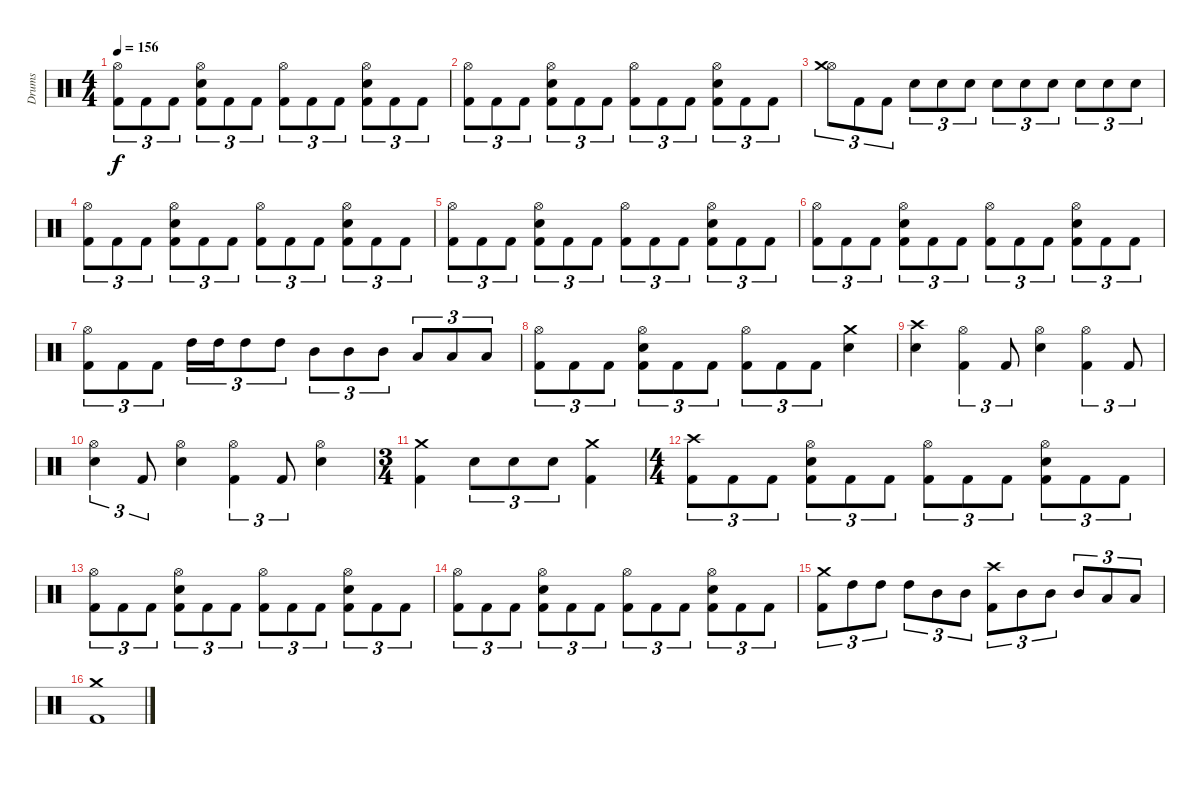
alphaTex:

\track ("Drums" "Drums") {instrument percussion}
\staff {score}
\articulation defaults
\ts (4 4)
\tempo 156
\clef neutral
\ks c
("Hi-Hat (open)" "Kick (hit) 2").8{tu (3 2) dy f} "Kick (hit) 2".8{tu (3 2)} "Kick (hit) 2".8{tu (3 2)} ("Electric Snare (hit)" "Kick (hit) 2" "Hi-Hat (open)").8{tu (3 2)} "Kick (hit) 2".8{tu (3 2)} "Kick (hit) 2".8{tu (3 2)} ("Hi-Hat (open)" "Kick (hit) 2").8{tu (3 2)} "Kick (hit) 2".8{tu (3 2)} "Kick (hit) 2".8{tu (3 2)} ("Electric Snare (hit)" "Kick (hit) 2" "Hi-Hat (open)").8{tu (3 2)} "Kick (hit) 2".8{tu (3 2)} "Kick (hit) 2".8{tu (3 2)} |
("Hi-Hat (open)" "Kick (hit) 2").8{tu (3 2)} "Kick (hit) 2".8{tu (3 2)} "Kick (hit) 2".8{tu (3 2)} ("Electric Snare (hit)" "Kick (hit) 2" "Hi-Hat (open)").8{tu (3 2)} "Kick (hit) 2".8{tu (3 2)} "Kick (hit) 2".8{tu (3 2)} ("Hi-Hat (open)" "Kick (hit) 2").8{tu (3 2)} "Kick (hit) 2".8{tu (3 2)} "Kick (hit) 2".8{tu (3 2)} ("Electric Snare (hit)" "Kick (hit) 2" "Hi-Hat (open)").8{tu (3 2)} "Kick (hit) 2".8{tu (3 2)} "Kick (hit) 2".8{tu (3 2)} |
("Hi-Hat (open)" "Crash medium (hit)").8{tu (3 2)} "Kick (hit) 2".8{tu (3 2)} "Kick (hit) 2".8{tu (3 2)} "Electric Snare (hit)".8{tu (3 2)} "Electric Snare (hit)".8{tu (3 2)} "Electric Snare (hit)".8{tu (3 2)} "Electric Snare (hit)".8{tu (3 2)} "Electric Snare (hit)".8{tu (3 2)} "Electric Snare (hit)".8{tu (3 2)} "Electric Snare (hit)".8{tu (3 2)} "Electric Snare (hit)".8{tu (3 2)} "Electric Snare (hit)".8{tu (3 2)} |
("Hi-Hat (open)" "Kick (hit) 2").8{tu (3 2)} "Kick (hit) 2".8{tu (3 2)} "Kick (hit) 2".8{tu (3 2)} ("Electric Snare (hit)" "Kick (hit) 2" "Hi-Hat (open)").8{tu (3 2)} "Kick (hit) 2".8{tu (3 2)} "Kick (hit) 2".8{tu (3 2)} ("Hi-Hat (open)" "Kick (hit) 2").8{tu (3 2)} "Kick (hit) 2".8{tu (3 2)} "Kick (hit) 2".8{tu (3 2)} ("Electric Snare (hit)" "Kick (hit) 2" "Hi-Hat (open)").8{tu (3 2)} "Kick (hit) 2".8{tu (3 2)} "Kick (hit) 2".8{tu (3 2)} |
("Hi-Hat (open)" "Kick (hit) 2").8{tu (3 2)} "Kick (hit) 2".8{tu (3 2)} "Kick (hit) 2".8{tu (3 2)} ("Electric Snare (hit)" "Kick (hit) 2" "Hi-Hat (open)").8{tu (3 2)} "Kick (hit) 2".8{tu (3 2)} "Kick (hit) 2".8{tu (3 2)} ("Hi-Hat (open)" "Kick (hit) 2").8{tu (3 2)} "Kick (hit) 2".8{tu (3 2)} "Kick (hit) 2".8{tu (3 2)} ("Electric Snare (hit)" "Kick (hit) 2" "Hi-Hat (open)").8{tu (3 2)} "Kick (hit) 2".8{tu (3 2)} "Kick (hit) 2".8{tu (3 2)} |
("Hi-Hat (open)" "Kick (hit) 2").8{tu (3 2)} "Kick (hit) 2".8{tu (3 2)} "Kick (hit) 2".8{tu (3 2)} ("Electric Snare (hit)" "Kick (hit) 2" "Hi-Hat (open)").8{tu (3 2)} "Kick (hit) 2".8{tu (3 2)} "Kick (hit) 2".8{tu (3 2)} ("Hi-Hat (open)" "Kick (hit) 2").8{tu (3 2)} "Kick (hit) 2".8{tu (3 2)} "Kick (hit) 2".8{tu (3 2)} ("Electric Snare (hit)" "Kick (hit) 2" "Hi-Hat (open)").8{tu (3 2)} "Kick (hit) 2".8{tu (3 2)} "Kick (hit) 2".8{tu (3 2)} |
("Hi-Hat (open)" "Kick (hit) 2").8{tu (3 2)} "Kick (hit) 2".8{tu (3 2)} "Kick (hit) 2".8{tu (3 2)} "High Tom (hit)".16{tu (3 2)} "High Tom (hit)".16{tu (3 2)} "High Tom (hit)".8{tu (3 2)} "High Tom (hit)".8{tu (3 2)} "Mid Tom (hit)".8{tu (3 2)} "Mid Tom (hit)".8{tu (3 2)} "Mid Tom (hit)".8{tu (3 2)} "Low Tom (hit)".8{tu (3 2)} "Low Tom (hit)".8{tu (3 2)} "Low Tom (hit)".8{tu (3 2)} |
("Hi-Hat (open)" "Kick (hit) 2").8{tu (3 2)} "Kick (hit) 2".8{tu (3 2)} "Kick (hit) 2".8{tu (3 2)} ("Electric Snare (hit)" "Kick (hit) 2" "Hi-Hat (open)").8{tu (3 2)} "Kick (hit) 2".8{tu (3 2)} "Kick (hit) 2".8{tu (3 2)} ("Hi-Hat (open)" "Kick (hit) 2").8{tu (3 2)} "Kick (hit) 2".8{tu (3 2)} "Kick (hit) 2".8{tu (3 2)} ("Crash medium (hit)" "Electric Snare (hit)").4 |
("Crash high (hit)" "Electric Snare (hit)").4 ("Hi-Hat (open)" "Kick (hit) 2").4{tu (3 2)} "Kick (hit) 2".8{tu (3 2)} ("Hi-Hat (open)" "Electric Snare (hit)").4 ("Hi-Hat (open)" "Kick (hit) 2").4{tu (3 2)} "Kick (hit) 2".8{tu (3 2)} |
("Hi-Hat (open)" "Electric Snare (hit)").4{tu (3 2)} "Kick (hit) 2".8{tu (3 2)} ("Hi-Hat (open)" "Electric Snare (hit)").4 ("Hi-Hat (open)" "Kick (hit) 2").4{tu (3 2)} "Kick (hit) 2".8{tu (3 2)} ("Hi-Hat (open)" "Electric Snare (hit)").4 |
\ts (3 4)
("Crash medium (hit)" "Kick (hit) 2").4 "Electric Snare (hit)".8{tu (3 2)} "Electric Snare (hit)".8{tu (3 2)} "Electric Snare (hit)".8{tu (3 2)} ("Crash medium (hit)" "Kick (hit) 2").4 |
\ts (4 4)
("Crash high (hit)" "Kick (hit) 2").8{tu (3 2)} "Kick (hit) 2".8{tu (3 2)} "Kick (hit) 2".8{tu (3 2)} ("Electric Snare (hit)" "Kick (hit) 2" "Hi-Hat (open)").8{tu (3 2)} "Kick (hit) 2".8{tu (3 2)} "Kick (hit) 2".8{tu (3 2)} ("Hi-Hat (open)" "Kick (hit) 2").8{tu (3 2)} "Kick (hit) 2".8{tu (3 2)} "Kick (hit) 2".8{tu (3 2)} ("Electric Snare (hit)" "Kick (hit) 2" "Hi-Hat (open)").8{tu (3 2)} "Kick (hit) 2".8{tu (3 2)} "Kick (hit) 2".8{tu (3 2)} |
("Hi-Hat (open)" "Kick (hit) 2").8{tu (3 2)} "Kick (hit) 2".8{tu (3 2)} "Kick (hit) 2".8{tu (3 2)} ("Electric Snare (hit)" "Kick (hit) 2" "Hi-Hat (open)").8{tu (3 2)} "Kick (hit) 2".8{tu (3 2)} "Kick (hit) 2".8{tu (3 2)} ("Hi-Hat (open)" "Kick (hit) 2").8{tu (3 2)} "Kick (hit) 2".8{tu (3 2)} "Kick (hit) 2".8{tu (3 2)} ("Electric Snare (hit)" "Kick (hit) 2" "Hi-Hat (open)").8{tu (3 2)} "Kick (hit) 2".8{tu (3 2)} "Kick (hit) 2".8{tu (3 2)} |
("Hi-Hat (open)" "Kick (hit) 2").8{tu (3 2)} "Kick (hit) 2".8{tu (3 2)} "Kick (hit) 2".8{tu (3 2)} ("Electric Snare (hit)" "Kick (hit) 2" "Hi-Hat (open)").8{tu (3 2)} "Kick (hit) 2".8{tu (3 2)} "Kick (hit) 2".8{tu (3 2)} ("Hi-Hat (open)" "Kick (hit) 2").8{tu (3 2)} "Kick (hit) 2".8{tu (3 2)} "Kick (hit) 2".8{tu (3 2)} ("Electric Snare (hit)" "Kick (hit) 2" "Hi-Hat (open)").8{tu (3 2)} "Kick (hit) 2".8{tu (3 2)} "Kick (hit) 2".8{tu (3 2)} |
("Crash medium (hit)" "Kick (hit) 2").8{tu (3 2)} "High Tom (hit)".8{tu (3 2)} "High Tom (hit)".8{tu (3 2)} "High Tom (hit)".8{tu (3 2)} "Mid Tom (hit)".8{tu (3 2)} "Mid Tom (hit)".8{tu (3 2)} ("Crash high (hit)" "Kick (hit) 2").8{tu (3 2)} "Mid Tom (hit)".8{tu (3 2)} "Mid Tom (hit)".8{tu (3 2)} "Mid Tom (hit)".8{tu (3 2)} "Low Tom (hit)".8{tu (3 2)} "Low Tom (hit)".8{tu (3 2)} |
("Crash medium (hit)" "Kick (hit) 2").1
